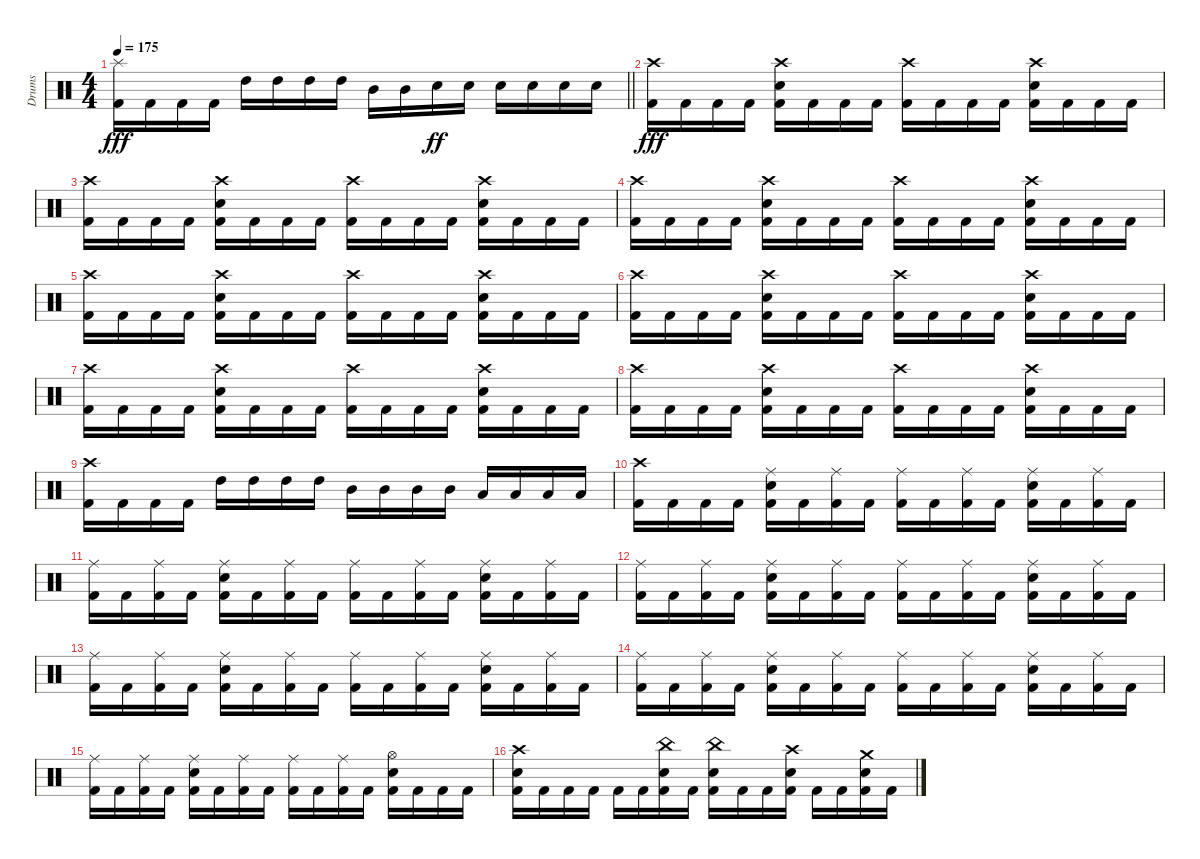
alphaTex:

\track ("Drums" "Drums") {instrument percussion}
\staff {score}
\articulation defaults
\ts (4 4)
\tempo 175
\clef neutral
\barLineRight lightlight
\ks c
("Splash (hit)" "Kick (hit) 2").16{dy fff} "Kick (hit) 2".16 "Kick (hit) 2".16 "Kick (hit) 2".16 "High Tom (hit)".16 "High Tom (hit)".16 "High Tom (hit)".16 "High Tom (hit)".16 "Mid Tom (hit)".16 "Mid Tom (hit)".16 "Snare (hit) 2".16{dy ff} "Snare (hit) 2".16 "Snare (hit) 2".16 "Snare (hit) 2".16 "Snare (hit) 2".16 "Snare (hit) 2".16 |
("Crash high (hit)" "Kick (hit) 2").16{dy fff} "Kick (hit) 2".16 "Kick (hit) 2".16 "Kick (hit) 2".16 ("Crash high (hit)" "Snare (hit) 2" "Kick (hit) 2").16 "Kick (hit) 2".16 "Kick (hit) 2".16 "Kick (hit) 2".16 ("Crash high (hit)" "Kick (hit) 2").16 "Kick (hit) 2".16 "Kick (hit) 2".16 "Kick (hit) 2".16 ("Crash high (hit)" "Snare (hit) 2" "Kick (hit) 2").16 "Kick (hit) 2".16 "Kick (hit) 2".16 "Kick (hit) 2".16 |
("Crash high (hit)" "Kick (hit) 2").16 "Kick (hit) 2".16 "Kick (hit) 2".16 "Kick (hit) 2".16 ("Crash high (hit)" "Snare (hit) 2" "Kick (hit) 2").16 "Kick (hit) 2".16 "Kick (hit) 2".16 "Kick (hit) 2".16 ("Crash high (hit)" "Kick (hit) 2").16 "Kick (hit) 2".16 "Kick (hit) 2".16 "Kick (hit) 2".16 ("Crash high (hit)" "Snare (hit) 2" "Kick (hit) 2").16 "Kick (hit) 2".16 "Kick (hit) 2".16 "Kick (hit) 2".16 |
("Crash high (hit)" "Kick (hit) 2").16 "Kick (hit) 2".16 "Kick (hit) 2".16 "Kick (hit) 2".16 ("Crash high (hit)" "Snare (hit) 2" "Kick (hit) 2").16 "Kick (hit) 2".16 "Kick (hit) 2".16 "Kick (hit) 2".16 ("Crash high (hit)" "Kick (hit) 2").16 "Kick (hit) 2".16 "Kick (hit) 2".16 "Kick (hit) 2".16 ("Crash high (hit)" "Snare (hit) 2" "Kick (hit) 2").16 "Kick (hit) 2".16 "Kick (hit) 2".16 "Kick (hit) 2".16 |
("Crash high (hit)" "Kick (hit) 2").16 "Kick (hit) 2".16 "Kick (hit) 2".16 "Kick (hit) 2".16 ("Crash high (hit)" "Snare (hit) 2" "Kick (hit) 2").16 "Kick (hit) 2".16 "Kick (hit) 2".16 "Kick (hit) 2".16 ("Crash high (hit)" "Kick (hit) 2").16 "Kick (hit) 2".16 "Kick (hit) 2".16 "Kick (hit) 2".16 ("Crash high (hit)" "Snare (hit) 2" "Kick (hit) 2").16 "Kick (hit) 2".16 "Kick (hit) 2".16 "Kick (hit) 2".16 |
("Crash high (hit)" "Kick (hit) 2").16 "Kick (hit) 2".16 "Kick (hit) 2".16 "Kick (hit) 2".16 ("Crash high (hit)" "Snare (hit) 2" "Kick (hit) 2").16 "Kick (hit) 2".16 "Kick (hit) 2".16 "Kick (hit) 2".16 ("Crash high (hit)" "Kick (hit) 2").16 "Kick (hit) 2".16 "Kick (hit) 2".16 "Kick (hit) 2".16 ("Crash high (hit)" "Snare (hit) 2" "Kick (hit) 2").16 "Kick (hit) 2".16 "Kick (hit) 2".16 "Kick (hit) 2".16 |
("Crash high (hit)" "Kick (hit) 2").16 "Kick (hit) 2".16 "Kick (hit) 2".16 "Kick (hit) 2".16 ("Crash high (hit)" "Snare (hit) 2" "Kick (hit) 2").16 "Kick (hit) 2".16 "Kick (hit) 2".16 "Kick (hit) 2".16 ("Crash high (hit)" "Kick (hit) 2").16 "Kick (hit) 2".16 "Kick (hit) 2".16 "Kick (hit) 2".16 ("Crash high (hit)" "Snare (hit) 2" "Kick (hit) 2").16 "Kick (hit) 2".16 "Kick (hit) 2".16 "Kick (hit) 2".16 |
("Crash high (hit)" "Kick (hit) 2").16 "Kick (hit) 2".16 "Kick (hit) 2".16 "Kick (hit) 2".16 ("Crash high (hit)" "Snare (hit) 2" "Kick (hit) 2").16 "Kick (hit) 2".16 "Kick (hit) 2".16 "Kick (hit) 2".16 ("Crash high (hit)" "Kick (hit) 2").16 "Kick (hit) 2".16 "Kick (hit) 2".16 "Kick (hit) 2".16 ("Crash high (hit)" "Snare (hit) 2" "Kick (hit) 2").16 "Kick (hit) 2".16 "Kick (hit) 2".16 "Kick (hit) 2".16 |
("Crash high (hit)" "Kick (hit) 2").16 "Kick (hit) 2".16 "Kick (hit) 2".16 "Kick (hit) 2".16 "High Tom (hit)".16 "High Tom (hit)".16 "High Tom (hit)".16 "High Tom (hit)".16 "Mid Tom (hit)".16 "Mid Tom (hit)".16 "Mid Tom (hit)".16 "Mid Tom (hit)".16 "Low Tom (hit)".16 "Low Tom (hit)".16 "Low Tom (hit)".16 "Low Tom (hit)".16 |
("Crash high (hit)" "Kick (hit) 2").16 "Kick (hit) 2".16 "Kick (hit) 2".16 "Kick (hit) 2".16 ("Ride (middle)" "Snare (hit) 2" "Kick (hit) 2").16 "Kick (hit) 2".16 ("Ride (middle)" "Kick (hit) 2").16 "Kick (hit) 2".16 ("Ride (middle)" "Kick (hit) 2").16 "Kick (hit) 2".16 ("Ride (middle)" "Kick (hit) 2").16 "Kick (hit) 2".16 ("Ride (middle)" "Snare (hit) 2" "Kick (hit) 2").16 "Kick (hit) 2".16 ("Ride (middle)" "Kick (hit) 2").16 "Kick (hit) 2".16 |
("Ride (middle)" "Kick (hit) 2").16 "Kick (hit) 2".16 ("Ride (middle)" "Kick (hit) 2").16 "Kick (hit) 2".16 ("Ride (middle)" "Snare (hit) 2" "Kick (hit) 2").16 "Kick (hit) 2".16 ("Ride (middle)" "Kick (hit) 2").16 "Kick (hit) 2".16 ("Ride (middle)" "Kick (hit) 2").16 "Kick (hit) 2".16 ("Ride (middle)" "Kick (hit) 2").16 "Kick (hit) 2".16 ("Ride (middle)" "Snare (hit) 2" "Kick (hit) 2").16 "Kick (hit) 2".16 ("Ride (middle)" "Kick (hit) 2").16 "Kick (hit) 2".16 |
("Ride (middle)" "Kick (hit) 2").16 "Kick (hit) 2".16 ("Ride (middle)" "Kick (hit) 2").16 "Kick (hit) 2".16 ("Ride (middle)" "Snare (hit) 2" "Kick (hit) 2").16 "Kick (hit) 2".16 ("Ride (middle)" "Kick (hit) 2").16 "Kick (hit) 2".16 ("Ride (middle)" "Kick (hit) 2").16 "Kick (hit) 2".16 ("Ride (middle)" "Kick (hit) 2").16 "Kick (hit) 2".16 ("Ride (middle)" "Snare (hit) 2" "Kick (hit) 2").16 "Kick (hit) 2".16 ("Ride (middle)" "Kick (hit) 2").16 "Kick (hit) 2".16 |
("Ride (middle)" "Kick (hit) 2").16 "Kick (hit) 2".16 ("Ride (middle)" "Kick (hit) 2").16 "Kick (hit) 2".16 ("Ride (middle)" "Snare (hit) 2" "Kick (hit) 2").16 "Kick (hit) 2".16 ("Ride (middle)" "Kick (hit) 2").16 "Kick (hit) 2".16 ("Ride (middle)" "Kick (hit) 2").16 "Kick (hit) 2".16 ("Ride (middle)" "Kick (hit) 2").16 "Kick (hit) 2".16 ("Ride (middle)" "Snare (hit) 2" "Kick (hit) 2").16 "Kick (hit) 2".16 ("Ride (middle)" "Kick (hit) 2").16 "Kick (hit) 2".16 |
("Ride (middle)" "Kick (hit) 2").16 "Kick (hit) 2".16 ("Ride (middle)" "Kick (hit) 2").16 "Kick (hit) 2".16 ("Ride (middle)" "Snare (hit) 2" "Kick (hit) 2").16 "Kick (hit) 2".16 ("Ride (middle)" "Kick (hit) 2").16 "Kick (hit) 2".16 ("Ride (middle)" "Kick (hit) 2").16 "Kick (hit) 2".16 ("Ride (middle)" "Kick (hit) 2").16 "Kick (hit) 2".16 ("Ride (middle)" "Snare (hit) 2" "Kick (hit) 2").16 "Kick (hit) 2".16 ("Ride (middle)" "Kick (hit) 2").16 "Kick (hit) 2".16 |
("Ride (middle)" "Kick (hit) 2").16 "Kick (hit) 2".16 ("Ride (middle)" "Kick (hit) 2").16 "Kick (hit) 2".16 ("Ride (middle)" "Snare (hit) 2" "Kick (hit) 2").16 "Kick (hit) 2".16 ("Ride (middle)" "Kick (hit) 2").16 "Kick (hit) 2".16 ("Ride (middle)" "Kick (hit) 2").16 "Kick (hit) 2".16 ("Ride (middle)" "Kick (hit) 2").16 "Kick (hit) 2".16 ("Hi-Hat (open)" "Snare (hit) 2" "Kick (hit) 2").16 "Kick (hit) 2".16 "Kick (hit) 2".16 "Kick (hit) 2".16 |
("Crash high (hit)" "Snare (hit) 2" "Kick (hit) 2").16 "Kick (hit) 2".16 "Kick (hit) 2".16 "Kick (hit) 2".16 "Kick (hit) 2".16 "Kick (hit) 2".16 ("China (hit)" "Snare (hit) 2" "Kick (hit) 2").16 "Kick (hit) 2".16 ("China (hit)" "Snare (hit) 2" "Kick (hit) 2").16 "Kick (hit) 2".16 "Kick (hit) 2".16 ("Crash high (hit)" "Snare (hit) 2" "Kick (hit) 2").16 "Kick (hit) 2".16 "Kick (hit) 2".16 ("Crash medium (hit)" "Snare (hit) 2" "Kick (hit) 2").16 "Kick (hit) 2".16
